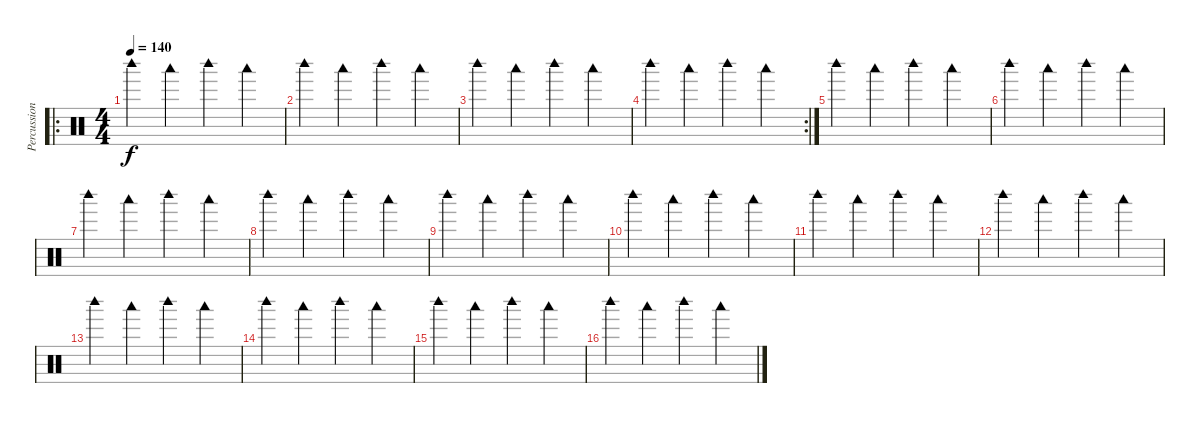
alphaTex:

\track ("Percussions" "Percussion") {instrument percussion}
\staff {score}
\articulation defaults
\ro
\ts (4 4)
\tempo 140
\clef neutral
\ks c "Woodblock high (hit)".4{dy f} "Woodblock low (hit)".4 "Woodblock high (hit)".4 "Woodblock low (hit)".4
|
"Woodblock high (hit)".4 "Woodblock low (hit)".4 "Woodblock high (hit)".4 "Woodblock low (hit)".4 |
"Woodblock high (hit)".4 "Woodblock low (hit)".4 "Woodblock high (hit)".4 "Woodblock low (hit)".4 |
\rc 2 "Woodblock high (hit)".4 "Woodblock low (hit)".4 "Woodblock high (hit)".4 "Woodblock low (hit)".4
|
"Woodblock high (hit)".4 "Woodblock low (hit)".4 "Woodblock high (hit)".4 "Woodblock low (hit)".4 |
"Woodblock high (hit)".4 "Woodblock low (hit)".4 "Woodblock high (hit)".4 "Woodblock low (hit)".4 |
"Woodblock high (hit)".4 "Woodblock low (hit)".4 "Woodblock high (hit)".4 "Woodblock low (hit)".4 |
"Woodblock high (hit)".4 "Woodblock low (hit)".4 "Woodblock high (hit)".4 "Woodblock low (hit)".4 |
"Woodblock high (hit)".4 "Woodblock low (hit)".4 "Woodblock high (hit)".4 "Woodblock low (hit)".4 |
"Woodblock high (hit)".4 "Woodblock low (hit)".4 "Woodblock high (hit)".4 "Woodblock low (hit)".4 |
"Woodblock high (hit)".4 "Woodblock low (hit)".4 "Woodblock high (hit)".4 "Woodblock low (hit)".4 |
"Woodblock high (hit)".4 "Woodblock low (hit)".4 "Woodblock high (hit)".4 "Woodblock low (hit)".4 |
"Woodblock high (hit)".4 "Woodblock low (hit)".4 "Woodblock high (hit)".4 "Woodblock low (hit)".4 |
"Woodblock high (hit)".4 "Woodblock low (hit)".4 "Woodblock high (hit)".4 "Woodblock low (hit)".4 |
"Woodblock high (hit)".4 "Woodblock low (hit)".4 "Woodblock high (hit)".4 "Woodblock low (hit)".4 |
"Woodblock high (hit)".4 "Woodblock low (hit)".4 "Woodblock high (hit)".4 "Woodblock low (hit)".4
